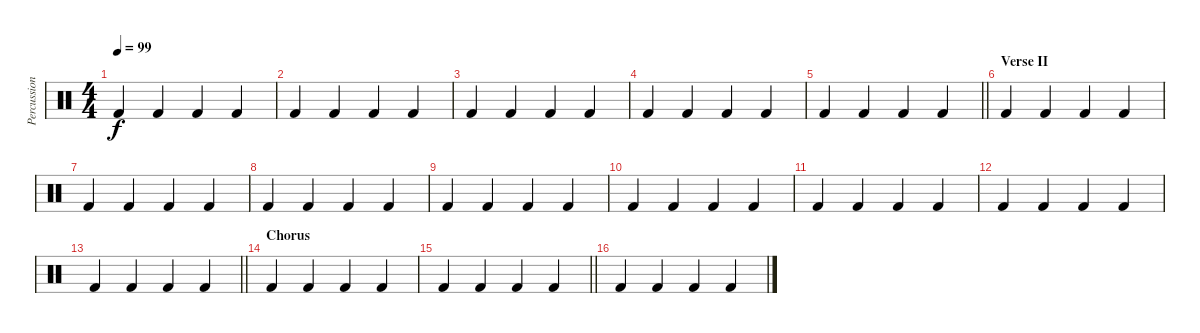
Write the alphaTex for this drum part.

\track ("Percussion" "Percussion") {instrument percussion}
\staff {score}
\articulation defaults
\ts (4 4)
\tempo 99
\clef neutral
\ks c "Kick (hit) 2".4{dy f} "Kick (hit) 2".4 "Kick (hit) 2".4 "Kick (hit) 2".4
|
"Kick (hit) 2".4 "Kick (hit) 2".4 "Kick (hit) 2".4 "Kick (hit) 2".4 |
"Kick (hit) 2".4 "Kick (hit) 2".4 "Kick (hit) 2".4 "Kick (hit) 2".4 |
"Kick (hit) 2".4 "Kick (hit) 2".4 "Kick (hit) 2".4 "Kick (hit) 2".4 |
\barLineRight lightlight "Kick (hit) 2".4 "Kick (hit) 2".4 "Kick (hit) 2".4 "Kick (hit) 2".4
|
\section ("" "Verse II")
"Kick (hit) 2".4 "Kick (hit) 2".4 "Kick (hit) 2".4 "Kick (hit) 2".4 |
"Kick (hit) 2".4 "Kick (hit) 2".4 "Kick (hit) 2".4 "Kick (hit) 2".4 |
"Kick (hit) 2".4 "Kick (hit) 2".4 "Kick (hit) 2".4 "Kick (hit) 2".4 |
"Kick (hit) 2".4 "Kick (hit) 2".4 "Kick (hit) 2".4 "Kick (hit) 2".4 |
"Kick (hit) 2".4 "Kick (hit) 2".4 "Kick (hit) 2".4 "Kick (hit) 2".4 |
"Kick (hit) 2".4 "Kick (hit) 2".4 "Kick (hit) 2".4 "Kick (hit) 2".4 |
"Kick (hit) 2".4 "Kick (hit) 2".4 "Kick (hit) 2".4 "Kick (hit) 2".4 |
\barLineRight lightlight "Kick (hit) 2".4 "Kick (hit) 2".4 "Kick (hit) 2".4 "Kick (hit) 2".4
|
\section ("" "Chorus")
"Kick (hit) 2".4 "Kick (hit) 2".4 "Kick (hit) 2".4 "Kick (hit) 2".4 |
\barLineRight lightlight "Kick (hit) 2".4 "Kick (hit) 2".4 "Kick (hit) 2".4 "Kick (hit) 2".4
|
"Kick (hit) 2".4 "Kick (hit) 2".4 "Kick (hit) 2".4 "Kick (hit) 2".4
